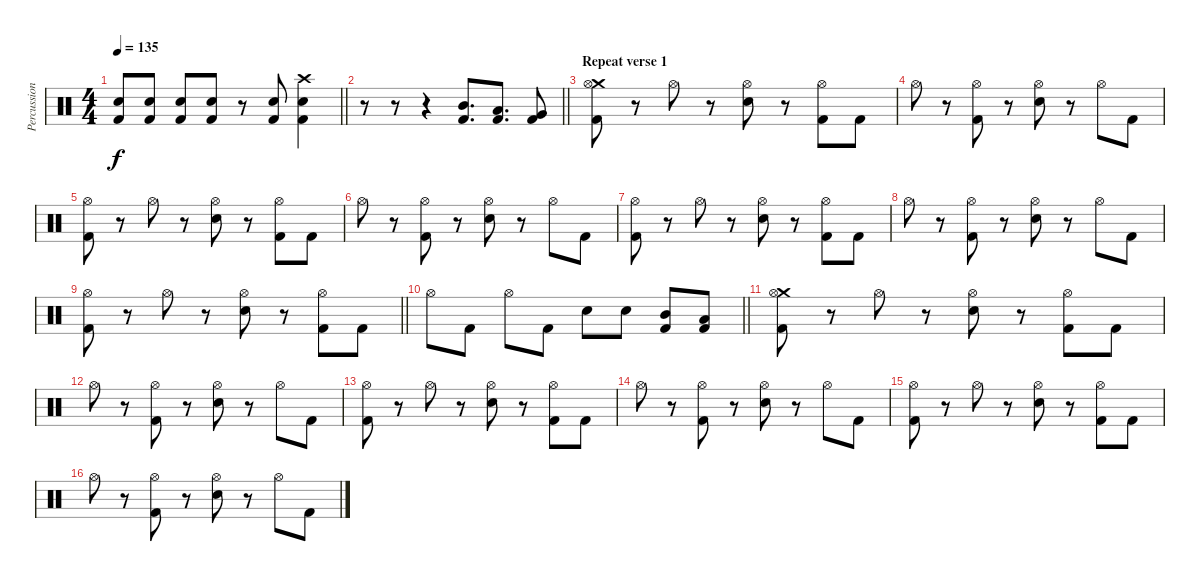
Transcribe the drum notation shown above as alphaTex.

\track ("Percussion" "Percussion") {instrument percussion}
\staff {score}
\articulation defaults
\ts (4 4)
\tempo 135
\clef neutral
\barLineRight lightlight
\ks c
("Electric Snare (hit)" "Kick (hit) 2").8{dy f} ("Electric Snare (hit)" "Kick (hit) 2").8 ("Electric Snare (hit)" "Kick (hit) 2").8 ("Electric Snare (hit)" "Kick (hit) 2").8 r.8 ("Electric Snare (hit)" "Kick (hit) 2").8 ("Crash high (hit)" "Electric Snare (hit)" "Kick (hit) 2").4 |
\barLineRight lightlight
r.8 r.8 r.4 ("Kick (hit) 2" "Mid Tom (hit)").8{d} ("Kick (hit) 2" "Low Tom (hit)").8{d} ("Kick (hit) 2" "Very Low Tom (hit)").8 |
\section ("" "Repeat verse 1")
("Crash medium (hit)" "Hi-Hat (open)" "Kick (hit) 2").8 r.8 "Hi-Hat (open)".8 r.8 ("Hi-Hat (open)" "Electric Snare (hit)").8 r.8 ("Hi-Hat (open)" "Kick (hit) 2").8 "Kick (hit) 2".8 |
"Hi-Hat (open)".8 r.8 ("Hi-Hat (open)" "Kick (hit) 2").8 r.8 ("Hi-Hat (open)" "Electric Snare (hit)").8 r.8 "Hi-Hat (open)".8 "Kick (hit) 2".8 |
("Hi-Hat (open)" "Kick (hit) 2").8 r.8 "Hi-Hat (open)".8 r.8 ("Hi-Hat (open)" "Electric Snare (hit)").8 r.8 ("Hi-Hat (open)" "Kick (hit) 2").8 "Kick (hit) 2".8 |
"Hi-Hat (open)".8 r.8 ("Hi-Hat (open)" "Kick (hit) 2").8 r.8 ("Hi-Hat (open)" "Electric Snare (hit)").8 r.8 "Hi-Hat (open)".8 "Kick (hit) 2".8 |
("Hi-Hat (open)" "Kick (hit) 2").8 r.8 "Hi-Hat (open)".8 r.8 ("Hi-Hat (open)" "Electric Snare (hit)").8 r.8 ("Hi-Hat (open)" "Kick (hit) 2").8 "Kick (hit) 2".8 |
"Hi-Hat (open)".8 r.8 ("Hi-Hat (open)" "Kick (hit) 2").8 r.8 ("Hi-Hat (open)" "Electric Snare (hit)").8 r.8 "Hi-Hat (open)".8 "Kick (hit) 2".8 |
\barLineRight lightlight
("Hi-Hat (open)" "Kick (hit) 2").8 r.8 "Hi-Hat (open)".8 r.8 ("Hi-Hat (open)" "Electric Snare (hit)").8 r.8 ("Hi-Hat (open)" "Kick (hit) 2").8 "Kick (hit) 2".8 |
\barLineRight lightlight "Hi-Hat (open)".8 "Kick (hit) 2".8 "Hi-Hat (open)".8 "Kick (hit) 2".8 "Electric Snare (hit)".8 "Electric Snare (hit)".8
("Mid Tom (hit)" "Kick (hit) 2").8 ("Low Tom (hit)" "Kick (hit) 2").8 |
("Crash medium (hit)" "Hi-Hat (open)" "Kick (hit) 2").8 r.8 "Hi-Hat (open)".8 r.8 ("Hi-Hat (open)" "Electric Snare (hit)").8 r.8 ("Hi-Hat (open)" "Kick (hit) 2").8 "Kick (hit) 2".8 |
"Hi-Hat (open)".8 r.8 ("Hi-Hat (open)" "Kick (hit) 2").8 r.8 ("Hi-Hat (open)" "Electric Snare (hit)").8 r.8 "Hi-Hat (open)".8 "Kick (hit) 2".8 |
("Hi-Hat (open)" "Kick (hit) 2").8 r.8 "Hi-Hat (open)".8 r.8 ("Hi-Hat (open)" "Electric Snare (hit)").8 r.8 ("Hi-Hat (open)" "Kick (hit) 2").8 "Kick (hit) 2".8 |
"Hi-Hat (open)".8 r.8 ("Hi-Hat (open)" "Kick (hit) 2").8 r.8 ("Hi-Hat (open)" "Electric Snare (hit)").8 r.8 "Hi-Hat (open)".8 "Kick (hit) 2".8 |
("Hi-Hat (open)" "Kick (hit) 2").8 r.8 "Hi-Hat (open)".8 r.8 ("Hi-Hat (open)" "Electric Snare (hit)").8 r.8 ("Hi-Hat (open)" "Kick (hit) 2").8 "Kick (hit) 2".8 |
"Hi-Hat (open)".8 r.8 ("Hi-Hat (open)" "Kick (hit) 2").8 r.8 ("Hi-Hat (open)" "Electric Snare (hit)").8 r.8 "Hi-Hat (open)".8 "Kick (hit) 2".8
